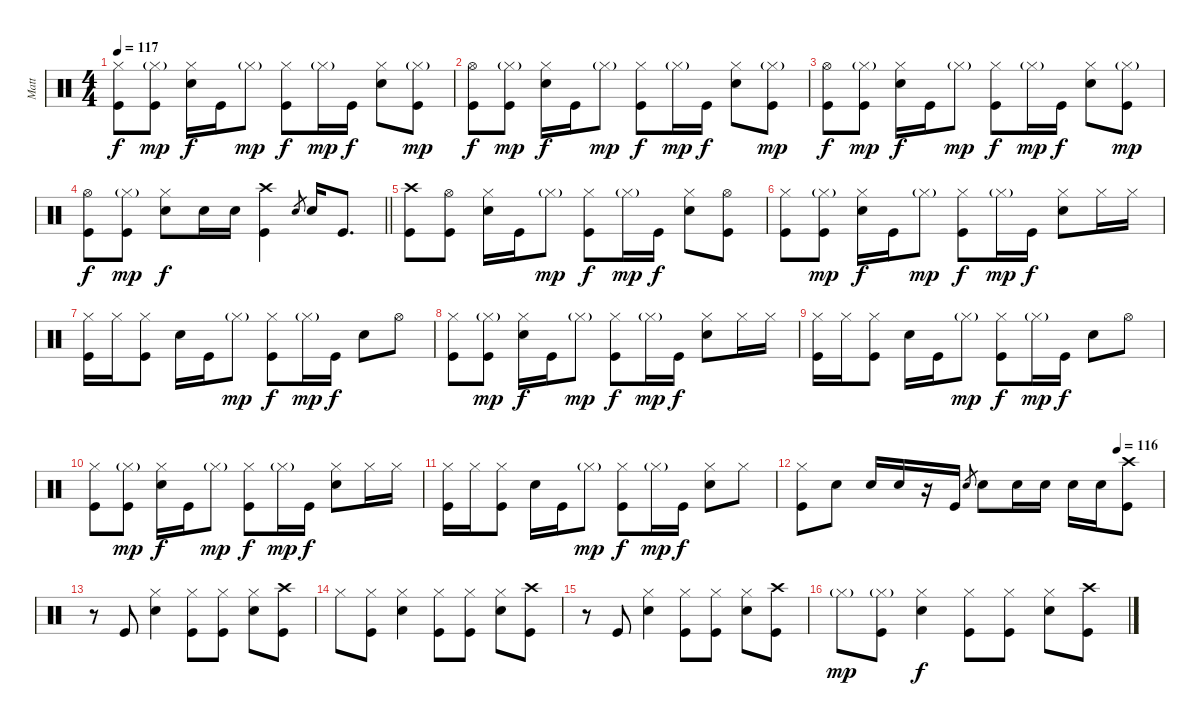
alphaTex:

\track ("Matt" "Matt") {instrument percussion}
\staff {score}
\articulation defaults
\ts (4 4)
\tempo 117
\clef neutral
\ks c
("Kick (hit)" "Hi-Hat (closed)").8{dy f} ("Kick (hit)" "Hi-Hat (closed)"{g}).8{dy mp} ("Snare (hit) 2" "Hi-Hat (closed)").16{dy f} "Kick (hit)".16 "Hi-Hat (closed)"{g}.8{dy mp} ("Kick (hit)" "Hi-Hat (closed)").8{dy f} "Hi-Hat (closed)"{g}.16{dy mp} "Kick (hit)".16{dy f} ("Snare (hit) 2" "Hi-Hat (closed)").8 ("Kick (hit)" "Hi-Hat (closed)"{g}).8{dy mp} |
("Kick (hit)" "Hi-Hat (open)").8{dy f} ("Kick (hit)" "Hi-Hat (closed)"{g}).8{dy mp} ("Snare (hit) 2" "Hi-Hat (closed)").16{dy f} "Kick (hit)".16 "Hi-Hat (closed)"{g}.8{dy mp} ("Kick (hit)" "Hi-Hat (closed)").8{dy f} "Hi-Hat (closed)"{g}.16{dy mp} "Kick (hit)".16{dy f} ("Snare (hit) 2" "Hi-Hat (closed)").8 ("Kick (hit)" "Hi-Hat (closed)"{g}).8{dy mp} |
("Kick (hit)" "Hi-Hat (open)").8{dy f} ("Kick (hit)" "Hi-Hat (closed)"{g}).8{dy mp} ("Snare (hit) 2" "Hi-Hat (closed)").16{dy f} "Kick (hit)".16 "Hi-Hat (closed)"{g}.8{dy mp} ("Kick (hit)" "Hi-Hat (closed)").8{dy f} "Hi-Hat (closed)"{g}.16{dy mp} "Kick (hit)".16{dy f} ("Snare (hit) 2" "Hi-Hat (closed)").8 ("Kick (hit)" "Hi-Hat (closed)"{g}).8{dy mp} |
\barLineRight lightlight
("Kick (hit)" "Hi-Hat (open)").8{dy f} ("Kick (hit)" "Hi-Hat (closed)"{g}).8{dy mp} ("Snare (hit) 2" "Hi-Hat (closed)").8{dy f} "Snare (hit) 2".16 "Snare (hit) 2".16 ("Crash high (hit)" "Kick (hit)").4 "Snare (hit) 2".8{gr} "Snare (hit) 2".16 "Kick (hit)".8{d} |
("Crash high (hit)" "Kick (hit)").8 ("Kick (hit)" "Hi-Hat (open)").8 ("Snare (hit) 2" "Hi-Hat (closed)").16 "Kick (hit)".16 "Hi-Hat (closed)"{g}.8{dy mp} ("Kick (hit)" "Hi-Hat (closed)").8{dy f} "Hi-Hat (closed)"{g}.16{dy mp} "Kick (hit)".16{dy f} ("Snare (hit) 2" "Hi-Hat (closed)").8 ("Kick (hit)" "Hi-Hat (open)").8 |
("Kick (hit)" "Hi-Hat (closed)").8 ("Kick (hit)" "Hi-Hat (closed)"{g}).8{dy mp} ("Snare (hit) 2" "Hi-Hat (closed)").16{dy f} "Kick (hit)".16 "Hi-Hat (closed)"{g}.8{dy mp} ("Kick (hit)" "Hi-Hat (closed)").8{dy f} "Hi-Hat (closed)"{g}.16{dy mp} "Kick (hit)".16{dy f} ("Snare (hit) 2" "Hi-Hat (closed)").8 "Hi-Hat (closed)".16 "Hi-Hat (closed)".16 |
("Kick (hit)" "Hi-Hat (closed)").16 "Hi-Hat (closed)".16 ("Kick (hit)" "Hi-Hat (closed)").8 "Snare (hit) 2".16 "Kick (hit)".16 "Hi-Hat (closed)"{g}.8{dy mp} ("Kick (hit)" "Hi-Hat (closed)").8{dy f} "Hi-Hat (closed)"{g}.16{dy mp} "Kick (hit)".16{dy f} "Snare (hit) 2".8 "Hi-Hat (open)".8 |
("Kick (hit)" "Hi-Hat (closed)").8 ("Kick (hit)" "Hi-Hat (closed)"{g}).8{dy mp} ("Snare (hit) 2" "Hi-Hat (closed)").16{dy f} "Kick (hit)".16 "Hi-Hat (closed)"{g}.8{dy mp} ("Kick (hit)" "Hi-Hat (closed)").8{dy f} "Hi-Hat (closed)"{g}.16{dy mp} "Kick (hit)".16{dy f} ("Snare (hit) 2" "Hi-Hat (closed)").8 "Hi-Hat (closed)".16 "Hi-Hat (closed)".16 |
("Kick (hit)" "Hi-Hat (closed)").16 "Hi-Hat (closed)".16 ("Kick (hit)" "Hi-Hat (closed)").8 "Snare (hit) 2".16 "Kick (hit)".16 "Hi-Hat (closed)"{g}.8{dy mp} ("Kick (hit)" "Hi-Hat (closed)").8{dy f} "Hi-Hat (closed)"{g}.16{dy mp} "Kick (hit)".16{dy f} "Snare (hit) 2".8 "Hi-Hat (open)".8 |
("Kick (hit)" "Hi-Hat (closed)").8 ("Kick (hit)" "Hi-Hat (closed)"{g}).8{dy mp} ("Snare (hit) 2" "Hi-Hat (closed)").16{dy f} "Kick (hit)".16 "Hi-Hat (closed)"{g}.8{dy mp} ("Kick (hit)" "Hi-Hat (closed)").8{dy f} "Hi-Hat (closed)"{g}.16{dy mp} "Kick (hit)".16{dy f} ("Snare (hit) 2" "Hi-Hat (closed)").8 "Hi-Hat (closed)".16 "Hi-Hat (closed)".16 |
("Kick (hit)" "Hi-Hat (closed)").16 "Hi-Hat (closed)".16 ("Kick (hit)" "Hi-Hat (closed)").8 "Snare (hit) 2".16 "Kick (hit)".16 "Hi-Hat (closed)"{g}.8{dy mp} ("Kick (hit)" "Hi-Hat (closed)").8{dy f} "Hi-Hat (closed)"{g}.16{dy mp} "Kick (hit)".16{dy f} ("Snare (hit) 2" "Hi-Hat (closed)").8 "Hi-Hat (closed)".8 |
\tempo (116 0.875)
("Kick (hit)" "Hi-Hat (closed)").8 "Snare (hit) 2".8 "Snare (hit) 2".16 "Snare (hit) 2".16 r.16 "Kick (hit)".16 "Snare (hit) 2".8{gr} "Snare (hit) 2".8 "Snare (hit) 2".16 "Snare (hit) 2".16 "Snare (hit) 2".16 "Snare (hit) 2".16 ("Crash high (hit)" "Kick (hit)").8 |
r.8 "Kick (hit)".8 ("Snare (hit) 2" "Hi-Hat (closed)").4 ("Kick (hit)" "Hi-Hat (closed)").8 ("Kick (hit)" "Hi-Hat (closed)").8 ("Snare (hit) 2" "Hi-Hat (closed)").8 ("Crash high (hit)" "Kick (hit)").8 |
"Hi-Hat (closed)".8 ("Kick (hit)" "Hi-Hat (closed)").8 ("Snare (hit) 2" "Hi-Hat (closed)").4 ("Kick (hit)" "Hi-Hat (closed)").8 ("Kick (hit)" "Hi-Hat (closed)").8 ("Snare (hit) 2" "Hi-Hat (closed)").8 ("Crash high (hit)" "Kick (hit)").8 |
r.8 "Kick (hit)".8 ("Snare (hit) 2" "Hi-Hat (closed)").4 ("Kick (hit)" "Hi-Hat (closed)").8 ("Kick (hit)" "Hi-Hat (closed)").8 ("Snare (hit) 2" "Hi-Hat (closed)").8 ("Crash high (hit)" "Kick (hit)").8 |
"Hi-Hat (closed)"{g}.8{dy mp} ("Kick (hit)" "Hi-Hat (closed)"{g}).8 ("Snare (hit) 2" "Hi-Hat (closed)").4{dy f} ("Kick (hit)" "Hi-Hat (closed)").8 ("Kick (hit)" "Hi-Hat (closed)").8 ("Snare (hit) 2" "Hi-Hat (closed)").8 ("Crash high (hit)" "Kick (hit)").8
